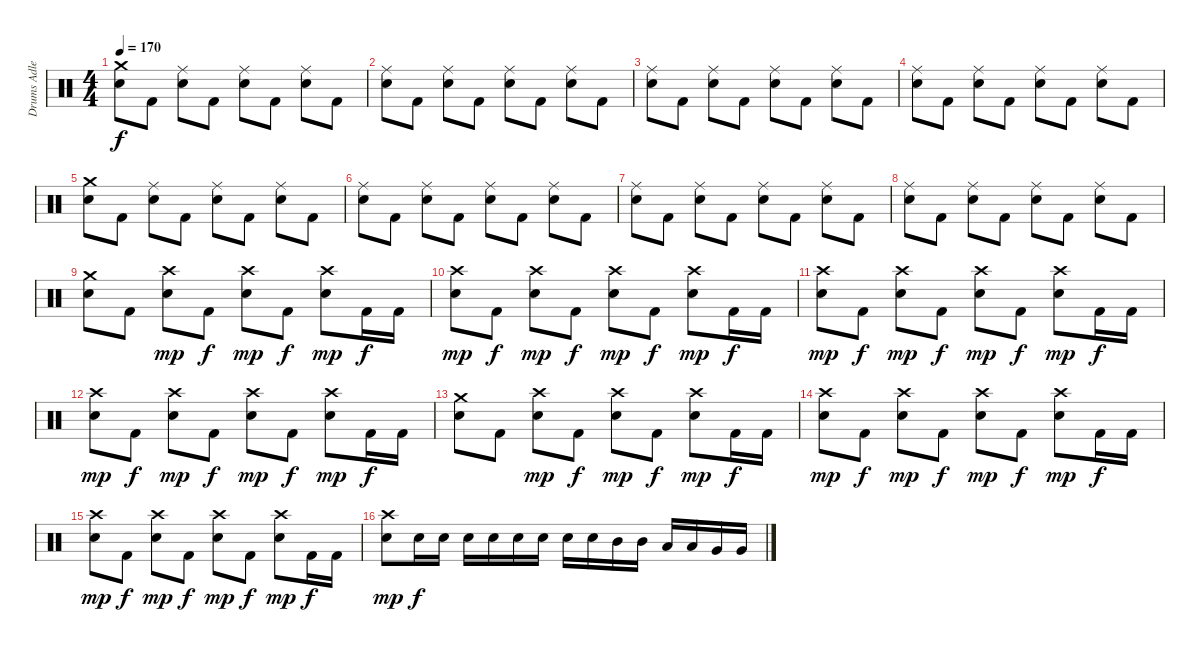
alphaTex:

\track ("Drums Adler" "Drums Adle") {instrument percussion}
\staff {score}
\articulation defaults
\ts (4 4)
\tempo 170
\clef neutral
\ks c
("Crash medium (hit)" "Snare (hit) 2").8{dy f} "Kick (hit) 2".8 ("Ride (middle)" "Snare (hit) 2").8 "Kick (hit) 2".8 ("Ride (middle)" "Snare (hit) 2").8 "Kick (hit) 2".8 ("Ride (middle)" "Snare (hit) 2").8 "Kick (hit) 2".8 |
("Ride (middle)" "Snare (hit) 2").8 "Kick (hit) 2".8 ("Ride (middle)" "Snare (hit) 2").8 "Kick (hit) 2".8 ("Ride (middle)" "Snare (hit) 2").8 "Kick (hit) 2".8 ("Ride (middle)" "Snare (hit) 2").8 "Kick (hit) 2".8 |
("Ride (middle)" "Snare (hit) 2").8 "Kick (hit) 2".8 ("Ride (middle)" "Snare (hit) 2").8 "Kick (hit) 2".8 ("Ride (middle)" "Snare (hit) 2").8 "Kick (hit) 2".8 ("Ride (middle)" "Snare (hit) 2").8 "Kick (hit) 2".8 |
("Ride (middle)" "Snare (hit) 2").8 "Kick (hit) 2".8 ("Ride (middle)" "Snare (hit) 2").8 "Kick (hit) 2".8 ("Ride (middle)" "Snare (hit) 2").8 "Kick (hit) 2".8 ("Ride (middle)" "Snare (hit) 2").8 "Kick (hit) 2".8 |
("Crash medium (hit)" "Snare (hit) 2").8 "Kick (hit) 2".8 ("Ride (middle)" "Snare (hit) 2").8 "Kick (hit) 2".8 ("Ride (middle)" "Snare (hit) 2").8 "Kick (hit) 2".8 ("Ride (middle)" "Snare (hit) 2").8 "Kick (hit) 2".8 |
("Ride (middle)" "Snare (hit) 2").8 "Kick (hit) 2".8 ("Ride (middle)" "Snare (hit) 2").8 "Kick (hit) 2".8 ("Ride (middle)" "Snare (hit) 2").8 "Kick (hit) 2".8 ("Ride (middle)" "Snare (hit) 2").8 "Kick (hit) 2".8 |
("Ride (middle)" "Snare (hit) 2").8 "Kick (hit) 2".8 ("Ride (middle)" "Snare (hit) 2").8 "Kick (hit) 2".8 ("Ride (middle)" "Snare (hit) 2").8 "Kick (hit) 2".8 ("Ride (middle)" "Snare (hit) 2").8 "Kick (hit) 2".8 |
("Ride (middle)" "Snare (hit) 2").8 "Kick (hit) 2".8 ("Ride (middle)" "Snare (hit) 2").8 "Kick (hit) 2".8 ("Ride (middle)" "Snare (hit) 2").8 "Kick (hit) 2".8 ("Ride (middle)" "Snare (hit) 2").8 "Kick (hit) 2".8 |
("Crash medium (hit)" "Snare (hit) 2").8 "Kick (hit) 2".8 ("Crash high (hit)" "Snare (hit) 2").8{dy mp} "Kick (hit) 2".8{dy f} ("Crash high (hit)" "Snare (hit) 2").8{dy mp} "Kick (hit) 2".8{dy f} ("Crash high (hit)" "Snare (hit) 2").8{dy mp} "Kick (hit) 2".16{dy f} "Kick (hit) 2".16 |
("Crash high (hit)" "Snare (hit) 2").8{dy mp} "Kick (hit) 2".8{dy f} ("Crash high (hit)" "Snare (hit) 2").8{dy mp} "Kick (hit) 2".8{dy f} ("Crash high (hit)" "Snare (hit) 2").8{dy mp} "Kick (hit) 2".8{dy f} ("Crash high (hit)" "Snare (hit) 2").8{dy mp} "Kick (hit) 2".16{dy f} "Kick (hit) 2".16 |
("Crash high (hit)" "Snare (hit) 2").8{dy mp} "Kick (hit) 2".8{dy f} ("Crash high (hit)" "Snare (hit) 2").8{dy mp} "Kick (hit) 2".8{dy f} ("Crash high (hit)" "Snare (hit) 2").8{dy mp} "Kick (hit) 2".8{dy f} ("Crash high (hit)" "Snare (hit) 2").8{dy mp} "Kick (hit) 2".16{dy f} "Kick (hit) 2".16 |
("Crash high (hit)" "Snare (hit) 2").8{dy mp} "Kick (hit) 2".8{dy f} ("Crash high (hit)" "Snare (hit) 2").8{dy mp} "Kick (hit) 2".8{dy f} ("Crash high (hit)" "Snare (hit) 2").8{dy mp} "Kick (hit) 2".8{dy f} ("Crash high (hit)" "Snare (hit) 2").8{dy mp} "Kick (hit) 2".16{dy f} "Kick (hit) 2".16 |
("Crash medium (hit)" "Snare (hit) 2").8 "Kick (hit) 2".8 ("Crash high (hit)" "Snare (hit) 2").8{dy mp} "Kick (hit) 2".8{dy f} ("Crash high (hit)" "Snare (hit) 2").8{dy mp} "Kick (hit) 2".8{dy f} ("Crash high (hit)" "Snare (hit) 2").8{dy mp} "Kick (hit) 2".16{dy f} "Kick (hit) 2".16 |
("Crash high (hit)" "Snare (hit) 2").8{dy mp} "Kick (hit) 2".8{dy f} ("Crash high (hit)" "Snare (hit) 2").8{dy mp} "Kick (hit) 2".8{dy f} ("Crash high (hit)" "Snare (hit) 2").8{dy mp} "Kick (hit) 2".8{dy f} ("Crash high (hit)" "Snare (hit) 2").8{dy mp} "Kick (hit) 2".16{dy f} "Kick (hit) 2".16 |
("Crash high (hit)" "Snare (hit) 2").8{dy mp} "Kick (hit) 2".8{dy f} ("Crash high (hit)" "Snare (hit) 2").8{dy mp} "Kick (hit) 2".8{dy f} ("Crash high (hit)" "Snare (hit) 2").8{dy mp} "Kick (hit) 2".8{dy f} ("Crash high (hit)" "Snare (hit) 2").8{dy mp} "Kick (hit) 2".16{dy f} "Kick (hit) 2".16 |
("Crash high (hit)" "Snare (hit) 2").8{dy mp} "Snare (hit) 2".16{dy f} "Snare (hit) 2".16 "Snare (hit) 2".16 "Snare (hit) 2".16 "Snare (hit) 2".16 "Snare (hit) 2".16 "Snare (hit) 2".16 "Snare (hit) 2".16 "Mid Tom (hit)".16 "Mid Tom (hit)".16 "Low Tom (hit)".16 "Low Tom (hit)".16 "Very Low Tom (hit)".16 "Very Low Tom (hit)".16
